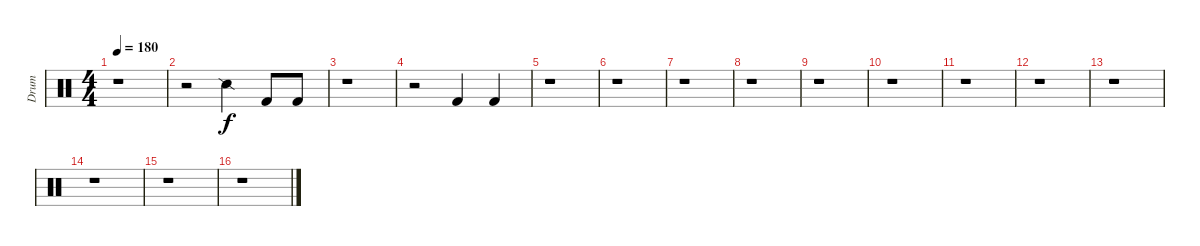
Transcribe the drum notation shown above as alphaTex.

\track ("Drum" "Drum") {instrument percussion}
\staff {score}
\articulation defaults
\ts (4 4)
\tempo 180
\clef neutral
\ks c
r.1{dy f} |
r.2 "Snare (side stick) 2".4 "Kick (hit) 2".8 "Kick (hit) 2".8 |
r.1 |
r.2 "Kick (hit) 2".4 "Kick (hit) 2".4 |
r.1 |
r.1 |
r.1 |
r.1 |
r.1 |
r.1 |
r.1 |
r.1 |
r.1 |
r.1 |
r.1 |
r.1
